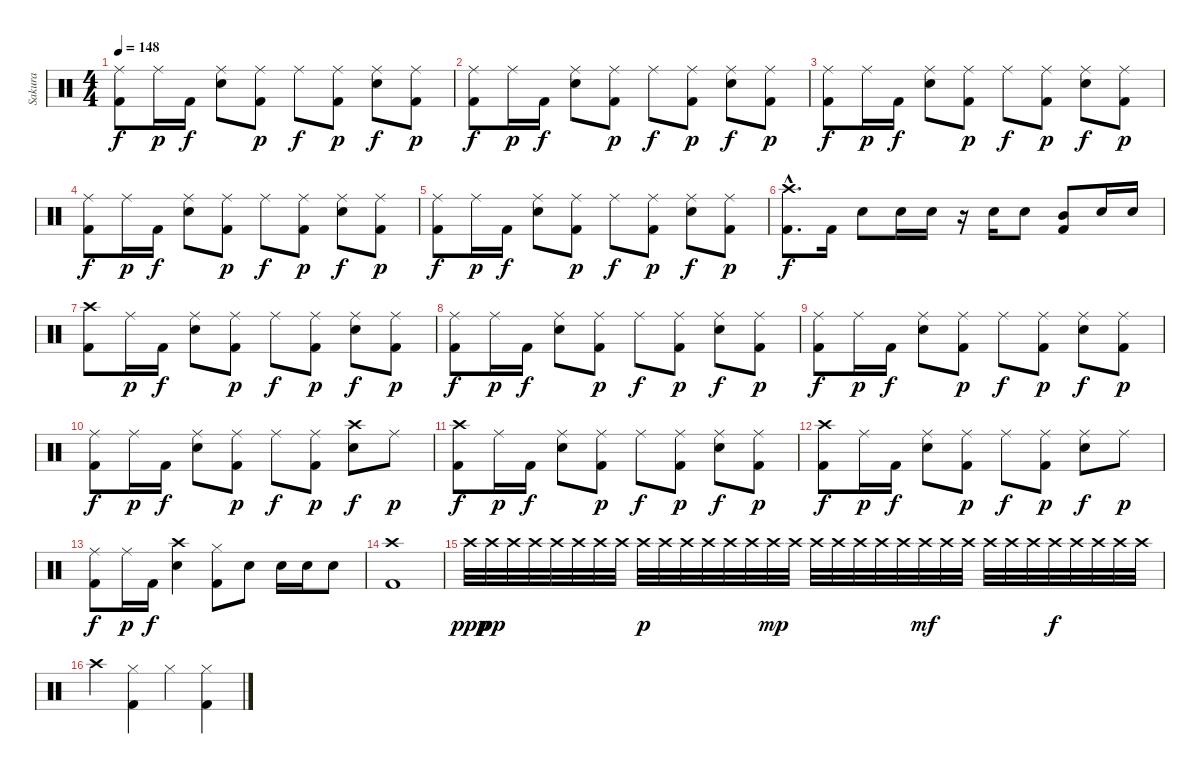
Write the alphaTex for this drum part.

\track ("Sakura" "Sakura") {instrument percussion}
\staff {score}
\articulation defaults
\ts (4 4)
\tempo 148
\clef neutral
\ks c
("Ride (middle)" "Kick (hit) 2").8{dy f} "Ride (middle)".16{dy p} "Kick (hit) 2".16{dy f} ("Ride (middle)" "Electric Snare (hit)").8 ("Ride (middle)" "Kick (hit) 2").8{dy p} "Ride (middle)".8{dy f} ("Ride (middle)" "Kick (hit) 2").8{dy p} ("Ride (middle)" "Electric Snare (hit)").8{dy f} ("Ride (middle)" "Kick (hit) 2").8{dy p} |
("Ride (middle)" "Kick (hit) 2").8{dy f} "Ride (middle)".16{dy p} "Kick (hit) 2".16{dy f} ("Ride (middle)" "Electric Snare (hit)").8 ("Ride (middle)" "Kick (hit) 2").8{dy p} "Ride (middle)".8{dy f} ("Ride (middle)" "Kick (hit) 2").8{dy p} ("Ride (middle)" "Electric Snare (hit)").8{dy f} ("Ride (middle)" "Kick (hit) 2").8{dy p} |
("Ride (middle)" "Kick (hit) 2").8{dy f} "Ride (middle)".16{dy p} "Kick (hit) 2".16{dy f} ("Ride (middle)" "Electric Snare (hit)").8 ("Ride (middle)" "Kick (hit) 2").8{dy p} "Ride (middle)".8{dy f} ("Ride (middle)" "Kick (hit) 2").8{dy p} ("Ride (middle)" "Electric Snare (hit)").8{dy f} ("Ride (middle)" "Kick (hit) 2").8{dy p} |
("Ride (middle)" "Kick (hit) 2").8{dy f} "Ride (middle)".16{dy p} "Kick (hit) 2".16{dy f} ("Ride (middle)" "Electric Snare (hit)").8 ("Ride (middle)" "Kick (hit) 2").8{dy p} "Ride (middle)".8{dy f} ("Ride (middle)" "Kick (hit) 2").8{dy p} ("Ride (middle)" "Electric Snare (hit)").8{dy f} ("Ride (middle)" "Kick (hit) 2").8{dy p} |
("Ride (middle)" "Kick (hit) 2").8{dy f} "Ride (middle)".16{dy p} "Kick (hit) 2".16{dy f} ("Ride (middle)" "Electric Snare (hit)").8 ("Ride (middle)" "Kick (hit) 2").8{dy p} "Ride (middle)".8{dy f} ("Ride (middle)" "Kick (hit) 2").8{dy p} ("Ride (middle)" "Electric Snare (hit)").8{dy f} ("Ride (middle)" "Kick (hit) 2").8{dy p} |
("Crash high (hit)"{hac} "Kick (hit) 2"{hac}).8{d dy f} "Kick (hit) 2".16 "Electric Snare (hit)".8 "Electric Snare (hit)".16 "Electric Snare (hit)".16 r.16 "Electric Snare (hit)".16 "Electric Snare (hit)".8 ("Mid Tom (hit)" "Kick (hit) 2").8 "Electric Snare (hit)".16 "Electric Snare (hit)".16 |
("Crash high (hit)" "Kick (hit) 2").8 "Ride (middle)".16{dy p} "Kick (hit) 2".16{dy f} ("Ride (middle)" "Electric Snare (hit)").8 ("Ride (middle)" "Kick (hit) 2").8{dy p} "Ride (middle)".8{dy f} ("Ride (middle)" "Kick (hit) 2").8{dy p} ("Ride (middle)" "Electric Snare (hit)").8{dy f} ("Ride (middle)" "Kick (hit) 2").8{dy p} |
("Ride (middle)" "Kick (hit) 2").8{dy f} "Ride (middle)".16{dy p} "Kick (hit) 2".16{dy f} ("Ride (middle)" "Electric Snare (hit)").8 ("Ride (middle)" "Kick (hit) 2").8{dy p} "Ride (middle)".8{dy f} ("Ride (middle)" "Kick (hit) 2").8{dy p} ("Ride (middle)" "Electric Snare (hit)").8{dy f} ("Ride (middle)" "Kick (hit) 2").8{dy p} |
("Ride (middle)" "Kick (hit) 2").8{dy f} "Ride (middle)".16{dy p} "Kick (hit) 2".16{dy f} ("Ride (middle)" "Electric Snare (hit)").8 ("Ride (middle)" "Kick (hit) 2").8{dy p} "Ride (middle)".8{dy f} ("Ride (middle)" "Kick (hit) 2").8{dy p} ("Ride (middle)" "Electric Snare (hit)").8{dy f} ("Ride (middle)" "Kick (hit) 2").8{dy p} |
("Ride (middle)" "Kick (hit) 2").8{dy f} "Ride (middle)".16{dy p} "Kick (hit) 2".16{dy f} ("Ride (middle)" "Electric Snare (hit)").8 ("Ride (middle)" "Kick (hit) 2").8{dy p} "Ride (middle)".8{dy f} ("Ride (middle)" "Kick (hit) 2").8{dy p} ("Crash high (hit)" "Electric Snare (hit)").8{dy f} "Ride (middle)".8{dy p} |
("Crash high (hit)" "Kick (hit) 2").8{dy f} "Ride (middle)".16{dy p} "Kick (hit) 2".16{dy f} ("Ride (middle)" "Electric Snare (hit)").8 ("Ride (middle)" "Kick (hit) 2").8{dy p} "Ride (middle)".8{dy f} ("Ride (middle)" "Kick (hit) 2").8{dy p} ("Ride (middle)" "Electric Snare (hit)").8{dy f} ("Ride (middle)" "Kick (hit) 2").8{dy p} |
("Crash high (hit)" "Kick (hit) 2").8{dy f} "Ride (middle)".16{dy p} "Kick (hit) 2".16{dy f} ("Ride (middle)" "Electric Snare (hit)").8 ("Ride (middle)" "Kick (hit) 2").8{dy p} "Ride (middle)".8{dy f} ("Ride (middle)" "Kick (hit) 2").8{dy p} ("Ride (middle)" "Electric Snare (hit)").8{dy f} "Ride (middle)".8{dy p} |
("Ride (middle)" "Kick (hit) 2").8{dy f} "Ride (middle)".16{dy p} "Kick (hit) 2".16{dy f} ("Crash high (hit)" "Electric Snare (hit)").4 ("Hi-Hat (closed)" "Kick (hit) 2").8 "Electric Snare (hit)".8 "Electric Snare (hit)".16 "Electric Snare (hit)".16 "Electric Snare (hit)".8 |
("Crash high (hit)" "Kick (hit) 2").1 |
"Crash high (hit)".32{dy ppp} "Crash high (hit)".32{dy pp} "Crash high (hit)".32 "Crash high (hit)".32 "Crash high (hit)".32 "Crash high (hit)".32 "Crash high (hit)".32 "Crash high (hit)".32 "Crash high (hit)".32{dy p} "Crash high (hit)".32 "Crash high (hit)".32 "Crash high (hit)".32 "Crash high (hit)".32 "Crash high (hit)".32 "Crash high (hit)".32{dy mp} "Crash high (hit)".32 "Crash high (hit)".32 "Crash high (hit)".32 "Crash high (hit)".32 "Crash high (hit)".32 "Crash high (hit)".32 "Crash high (hit)".32{dy mf} "Crash high (hit)".32 "Crash high (hit)".32 "Crash high (hit)".32 "Crash high (hit)".32 "Crash high (hit)".32 "Crash high (hit)".32{dy f} "Crash high (hit)".32 "Crash high (hit)".32 "Crash high (hit)".32 "Crash high (hit)".32 |
"Crash high (hit)".4 ("Hi-Hat (closed)" "Kick (hit) 2").4 "Hi-Hat (closed)".4 ("Hi-Hat (closed)" "Kick (hit) 2").4
